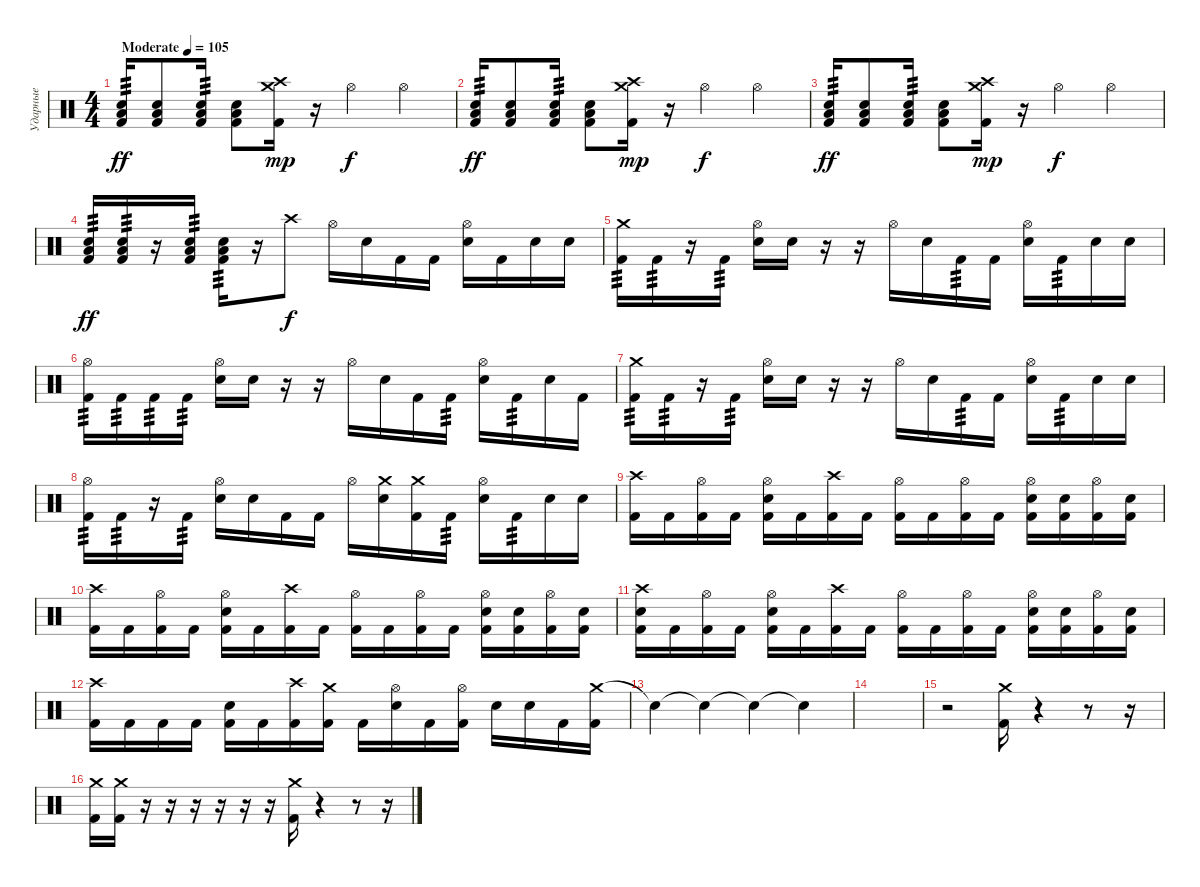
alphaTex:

\track ("Ударные" "Ударные") {instrument percussion}
\staff {score}
\articulation defaults
\ts (4 4)
\tempo (105 "Moderate")
\clef neutral
\ks c
("Low Floor Tom (hit)" "Snare (hit) 2" "Kick (hit) 2").16{tp 3 dy ff} ("Low Floor Tom (hit)" "Snare (hit) 2" "Kick (hit) 2").8 ("Low Floor Tom (hit)" "Snare (hit) 2" "Kick (hit) 2").16{tp 3} ("Low Floor Tom (hit)" "Snare (hit) 2" "Kick (hit) 2").8 ("Crash medium (hit)" "Crash high (hit)" "Kick (hit) 2").16{dy mp} r.16 "Hi-Hat (open)".4{dy f} "Hi-Hat (open)".4 |
("Low Floor Tom (hit)" "Snare (hit) 2" "Kick (hit) 2").16{tp 3 dy ff} ("Low Floor Tom (hit)" "Snare (hit) 2" "Kick (hit) 2").8 ("Low Floor Tom (hit)" "Snare (hit) 2" "Kick (hit) 2").16{tp 3} ("Low Floor Tom (hit)" "Snare (hit) 2" "Kick (hit) 2").8 ("Crash medium (hit)" "Crash high (hit)" "Kick (hit) 2").16{dy mp} r.16 "Hi-Hat (open)".4{dy f} "Hi-Hat (open)".4 |
("Low Floor Tom (hit)" "Snare (hit) 2" "Kick (hit) 2").16{tp 3 dy ff} ("Low Floor Tom (hit)" "Snare (hit) 2" "Kick (hit) 2").8 ("Low Floor Tom (hit)" "Snare (hit) 2" "Kick (hit) 2").16{tp 3} ("Low Floor Tom (hit)" "Snare (hit) 2" "Kick (hit) 2").8 ("Crash medium (hit)" "Crash high (hit)" "Kick (hit) 2").16{dy mp} r.16 "Hi-Hat (open)".4{dy f} "Hi-Hat (open)".4 |
("Low Floor Tom (hit)" "Snare (hit) 2" "Kick (hit) 2").16{tp 3 dy ff} ("Low Floor Tom (hit)" "Snare (hit) 2" "Kick (hit) 2").16{tp 3} r.16 ("Low Floor Tom (hit)" "Snare (hit) 2" "Kick (hit) 2").16{tp 3} ("Low Floor Tom (hit)" "Snare (hit) 2" "Kick (hit) 2").16{tp 3} r.16 "Crash high (hit)".8{dy f} "Hi-Hat (open)".16 "Snare (hit) 2".16 "Kick (hit) 2".16 "Kick (hit) 2".16 ("Hi-Hat (open)" "Snare (hit) 2").16 "Kick (hit) 2".16 "Snare (hit) 2".16 "Snare (hit) 2".16 |
("Crash medium (hit)" "Kick (hit) 2").16{tp 3} "Kick (hit) 2".16{tp 3} r.16 "Kick (hit) 2".16{tp 3} ("Hi-Hat (open)" "Snare (hit) 2").16 "Snare (hit) 2".16 r.16 r.16 "Hi-Hat (open)".16 "Snare (hit) 2".16 "Kick (hit) 2".16{tp 3} "Kick (hit) 2".16 ("Hi-Hat (open)" "Snare (hit) 2").16 "Kick (hit) 2".16{tp 3} "Snare (hit) 2".16 "Snare (hit) 2".16 |
("Hi-Hat (open)" "Kick (hit) 2").16{tp 3} "Kick (hit) 2".16{tp 3} "Kick (hit) 2".16{tp 3} "Kick (hit) 2".16{tp 3} ("Hi-Hat (open)" "Snare (hit) 2").16 "Snare (hit) 2".16 r.16 r.16 "Hi-Hat (open)".16 "Snare (hit) 2".16 "Kick (hit) 2".16 "Kick (hit) 2".16{tp 3} ("Hi-Hat (open)" "Snare (hit) 2").16 "Kick (hit) 2".16{tp 3} "Snare (hit) 2".16 "Kick (hit) 2".16 |
("Crash medium (hit)" "Kick (hit) 2").16{tp 3} "Kick (hit) 2".16{tp 3} r.16 "Kick (hit) 2".16{tp 3} ("Hi-Hat (open)" "Snare (hit) 2").16 "Snare (hit) 2".16 r.16 r.16 "Hi-Hat (open)".16 "Snare (hit) 2".16 "Kick (hit) 2".16{tp 3} "Kick (hit) 2".16 ("Hi-Hat (open)" "Snare (hit) 2").16 "Kick (hit) 2".16{tp 3} "Snare (hit) 2".16 "Snare (hit) 2".16 |
("Hi-Hat (open)" "Kick (hit) 2").16{tp 3} "Kick (hit) 2".16{tp 3} r.16 "Kick (hit) 2".16{tp 3} ("Hi-Hat (open)" "Snare (hit) 2").16 "Snare (hit) 2".16 "Kick (hit) 2".16 "Kick (hit) 2".16 "Hi-Hat (open)".16 ("Crash medium (hit)" "Snare (hit) 2").16 ("Crash medium (hit)" "Kick (hit) 2").16 "Kick (hit) 2".16{tp 3} ("Hi-Hat (open)" "Snare (hit) 2").16 "Kick (hit) 2".16{tp 3} "Snare (hit) 2".16 "Snare (hit) 2".16 |
("Crash high (hit)" "Kick (hit) 2").16 "Kick (hit) 2".16 ("Hi-Hat (open)" "Kick (hit) 2").16 "Kick (hit) 2".16 ("Hi-Hat (open)" "Snare (hit) 2" "Kick (hit) 2").16 "Kick (hit) 2".16 ("Crash high (hit)" "Kick (hit) 2").16 "Kick (hit) 2".16 ("Hi-Hat (open)" "Kick (hit) 2").16 "Kick (hit) 2".16 ("Hi-Hat (open)" "Kick (hit) 2").16 "Kick (hit) 2".16 ("Hi-Hat (open)" "Snare (hit) 2" "Kick (hit) 2").16 ("Snare (hit) 2" "Kick (hit) 2").16 ("Hi-Hat (open)" "Kick (hit) 2").16 ("Snare (hit) 2" "Kick (hit) 2").16 |
("Crash high (hit)" "Kick (hit) 2").16 "Kick (hit) 2".16 ("Hi-Hat (open)" "Kick (hit) 2").16 "Kick (hit) 2".16 ("Hi-Hat (open)" "Snare (hit) 2" "Kick (hit) 2").16 "Kick (hit) 2".16 ("Crash high (hit)" "Kick (hit) 2").16 "Kick (hit) 2".16 ("Hi-Hat (open)" "Kick (hit) 2").16 "Kick (hit) 2".16 ("Hi-Hat (open)" "Kick (hit) 2").16 "Kick (hit) 2".16 ("Hi-Hat (open)" "Snare (hit) 2" "Kick (hit) 2").16 ("Snare (hit) 2" "Kick (hit) 2").16 ("Hi-Hat (open)" "Kick (hit) 2").16 ("Snare (hit) 2" "Kick (hit) 2").16 |
("Crash high (hit)" "Snare (hit) 2" "Kick (hit) 2").16 "Kick (hit) 2".16 ("Hi-Hat (open)" "Kick (hit) 2").16 "Kick (hit) 2".16 ("Hi-Hat (open)" "Snare (hit) 2" "Kick (hit) 2").16 "Kick (hit) 2".16 ("Crash high (hit)" "Kick (hit) 2").16 "Kick (hit) 2".16 ("Hi-Hat (open)" "Kick (hit) 2").16 "Kick (hit) 2".16 ("Hi-Hat (open)" "Kick (hit) 2").16 "Kick (hit) 2".16 ("Hi-Hat (open)" "Snare (hit) 2" "Kick (hit) 2").16 ("Snare (hit) 2" "Kick (hit) 2").16 ("Hi-Hat (open)" "Kick (hit) 2").16 ("Snare (hit) 2" "Kick (hit) 2").16 |
("Crash high (hit)" "Kick (hit) 2").16 "Kick (hit) 2".16 "Kick (hit) 2".16 "Kick (hit) 2".16 ("Snare (hit) 2" "Kick (hit) 2").16 "Kick (hit) 2".16 ("Crash high (hit)" "Kick (hit) 2").16 ("Crash medium (hit)" "Kick (hit) 2").16 "Kick (hit) 2".16 ("Hi-Hat (open)" "Snare (hit) 2").16 "Kick (hit) 2".16 ("Hi-Hat (open)" "Kick (hit) 2").16 "Snare (hit) 2".16 "Snare (hit) 2".16 "Kick (hit) 2".16 ("Crash medium (hit)" "Kick (hit) 2").16 |
"Snare (hit)"{t}.4 "Snare (hit)"{t}.4 "Snare (hit)"{t}.4 "Snare (hit)"{t}.4 |
|
r.2 ("Crash medium (hit)" "Kick (hit) 2").16 r.4 r.8 r.16 |
("Crash medium (hit)" "Kick (hit) 2").16 ("Crash medium (hit)" "Kick (hit) 2").16 r.16 r.16 r.16 r.16 r.16 r.16 ("Crash medium (hit)" "Kick (hit) 2").16 r.4 r.8 r.16
